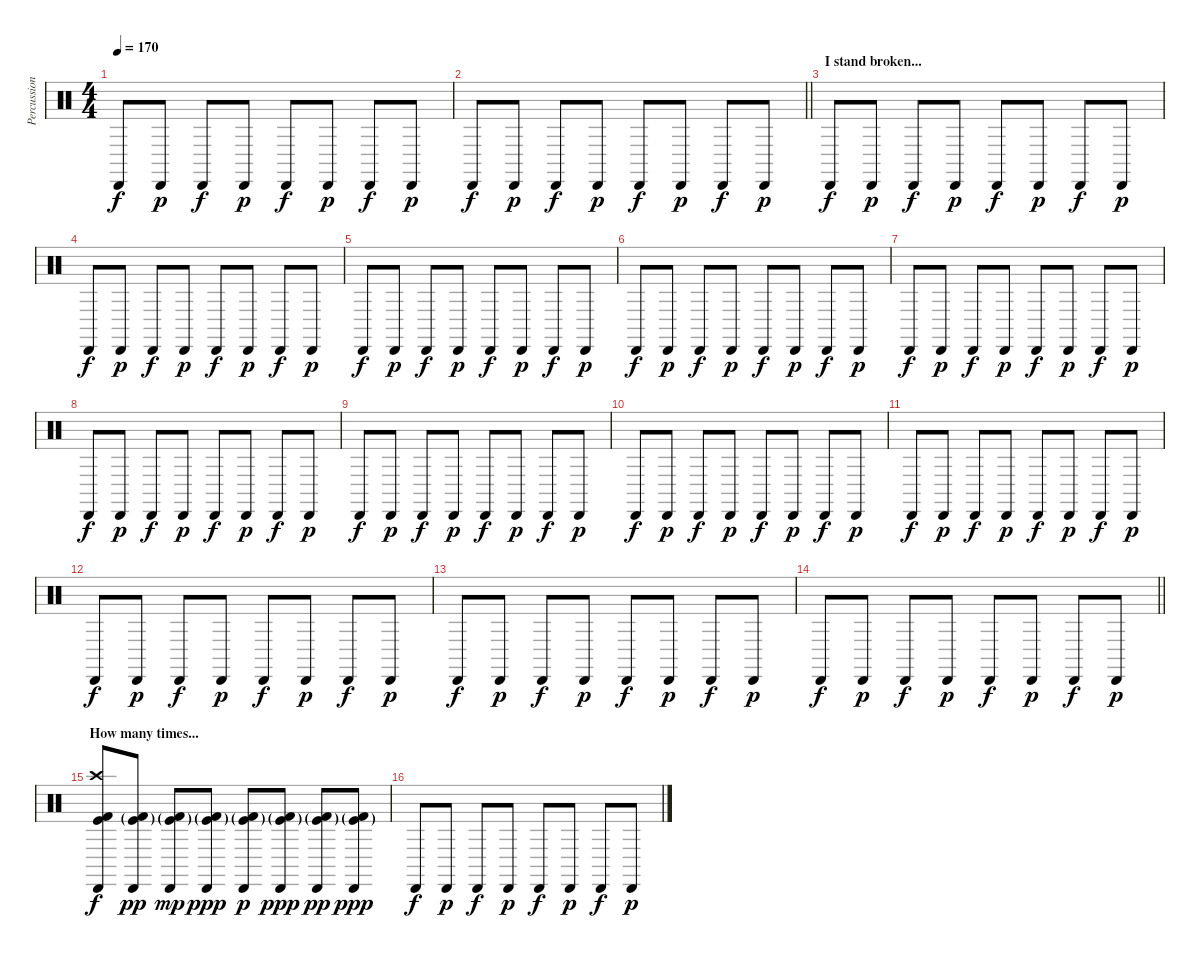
\track ("Percussion" "Percussion") {instrument percussion}
\staff {score}
\articulation defaults
\ts (4 4)
\tempo 170
\clef neutral
\ks c "Cabasa (hit)".8{dy f} "Cabasa (hit)".8{dy p} "Cabasa (hit)".8{dy f} "Cabasa (hit)".8{dy p} "Cabasa (hit)".8{dy f} "Cabasa (hit)".8{dy p} "Cabasa (hit)".8{dy f} "Cabasa (hit)".8{dy p}
|
\barLineRight lightlight "Cabasa (hit)".8{dy f} "Cabasa (hit)".8{dy p} "Cabasa (hit)".8{dy f} "Cabasa (hit)".8{dy p} "Cabasa (hit)".8{dy f} "Cabasa (hit)".8{dy p} "Cabasa (hit)".8{dy f} "Cabasa (hit)".8{dy p}
|
\section ("" "I stand broken...")
"Cabasa (hit)".8{dy f} "Cabasa (hit)".8{dy p} "Cabasa (hit)".8{dy f} "Cabasa (hit)".8{dy p} "Cabasa (hit)".8{dy f} "Cabasa (hit)".8{dy p} "Cabasa (hit)".8{dy f} "Cabasa (hit)".8{dy p} |
"Cabasa (hit)".8{dy f} "Cabasa (hit)".8{dy p} "Cabasa (hit)".8{dy f} "Cabasa (hit)".8{dy p} "Cabasa (hit)".8{dy f} "Cabasa (hit)".8{dy p} "Cabasa (hit)".8{dy f} "Cabasa (hit)".8{dy p} |
"Cabasa (hit)".8{dy f} "Cabasa (hit)".8{dy p} "Cabasa (hit)".8{dy f} "Cabasa (hit)".8{dy p} "Cabasa (hit)".8{dy f} "Cabasa (hit)".8{dy p} "Cabasa (hit)".8{dy f} "Cabasa (hit)".8{dy p} |
"Cabasa (hit)".8{dy f} "Cabasa (hit)".8{dy p} "Cabasa (hit)".8{dy f} "Cabasa (hit)".8{dy p} "Cabasa (hit)".8{dy f} "Cabasa (hit)".8{dy p} "Cabasa (hit)".8{dy f} "Cabasa (hit)".8{dy p} |
"Cabasa (hit)".8{dy f} "Cabasa (hit)".8{dy p} "Cabasa (hit)".8{dy f} "Cabasa (hit)".8{dy p} "Cabasa (hit)".8{dy f} "Cabasa (hit)".8{dy p} "Cabasa (hit)".8{dy f} "Cabasa (hit)".8{dy p} |
"Cabasa (hit)".8{dy f} "Cabasa (hit)".8{dy p} "Cabasa (hit)".8{dy f} "Cabasa (hit)".8{dy p} "Cabasa (hit)".8{dy f} "Cabasa (hit)".8{dy p} "Cabasa (hit)".8{dy f} "Cabasa (hit)".8{dy p} |
"Cabasa (hit)".8{dy f} "Cabasa (hit)".8{dy p} "Cabasa (hit)".8{dy f} "Cabasa (hit)".8{dy p} "Cabasa (hit)".8{dy f} "Cabasa (hit)".8{dy p} "Cabasa (hit)".8{dy f} "Cabasa (hit)".8{dy p} |
"Cabasa (hit)".8{dy f} "Cabasa (hit)".8{dy p} "Cabasa (hit)".8{dy f} "Cabasa (hit)".8{dy p} "Cabasa (hit)".8{dy f} "Cabasa (hit)".8{dy p} "Cabasa (hit)".8{dy f} "Cabasa (hit)".8{dy p} |
"Cabasa (hit)".8{dy f} "Cabasa (hit)".8{dy p} "Cabasa (hit)".8{dy f} "Cabasa (hit)".8{dy p} "Cabasa (hit)".8{dy f} "Cabasa (hit)".8{dy p} "Cabasa (hit)".8{dy f} "Cabasa (hit)".8{dy p} |
"Cabasa (hit)".8{dy f} "Cabasa (hit)".8{dy p} "Cabasa (hit)".8{dy f} "Cabasa (hit)".8{dy p} "Cabasa (hit)".8{dy f} "Cabasa (hit)".8{dy p} "Cabasa (hit)".8{dy f} "Cabasa (hit)".8{dy p} |
"Cabasa (hit)".8{dy f} "Cabasa (hit)".8{dy p} "Cabasa (hit)".8{dy f} "Cabasa (hit)".8{dy p} "Cabasa (hit)".8{dy f} "Cabasa (hit)".8{dy p} "Cabasa (hit)".8{dy f} "Cabasa (hit)".8{dy p} |
\barLineRight lightlight "Cabasa (hit)".8{dy f} "Cabasa (hit)".8{dy p} "Cabasa (hit)".8{dy f} "Cabasa (hit)".8{dy p} "Cabasa (hit)".8{dy f} "Cabasa (hit)".8{dy p} "Cabasa (hit)".8{dy f} "Cabasa (hit)".8{dy p}
|
\section ("" "How many times...")
("Cabasa (hit)" "Kick (hit)" "Kick (hit) 2" "Crash high (hit)").8{dy f} ("Cabasa (hit)" "Kick (hit)"{g} "Kick (hit) 2"{g}).8{dy pp} ("Cabasa (hit)" "Kick (hit)"{g} "Kick (hit) 2"{g}).8{dy mp} ("Cabasa (hit)" "Kick (hit)"{g} "Kick (hit) 2"{g}).8{dy ppp} ("Cabasa (hit)" "Kick (hit)"{g} "Kick (hit) 2"{g}).8{dy p} ("Cabasa (hit)" "Kick (hit)"{g} "Kick (hit) 2"{g}).8{dy ppp} ("Cabasa (hit)" "Kick (hit)"{g} "Kick (hit) 2"{g}).8{dy pp} ("Cabasa (hit)" "Kick (hit)"{g} "Kick (hit) 2"{g}).8{dy ppp} |
"Cabasa (hit)".8{dy f} "Cabasa (hit)".8{dy p} "Cabasa (hit)".8{dy f} "Cabasa (hit)".8{dy p} "Cabasa (hit)".8{dy f} "Cabasa (hit)".8{dy p} "Cabasa (hit)".8{dy f} "Cabasa (hit)".8{dy p}
